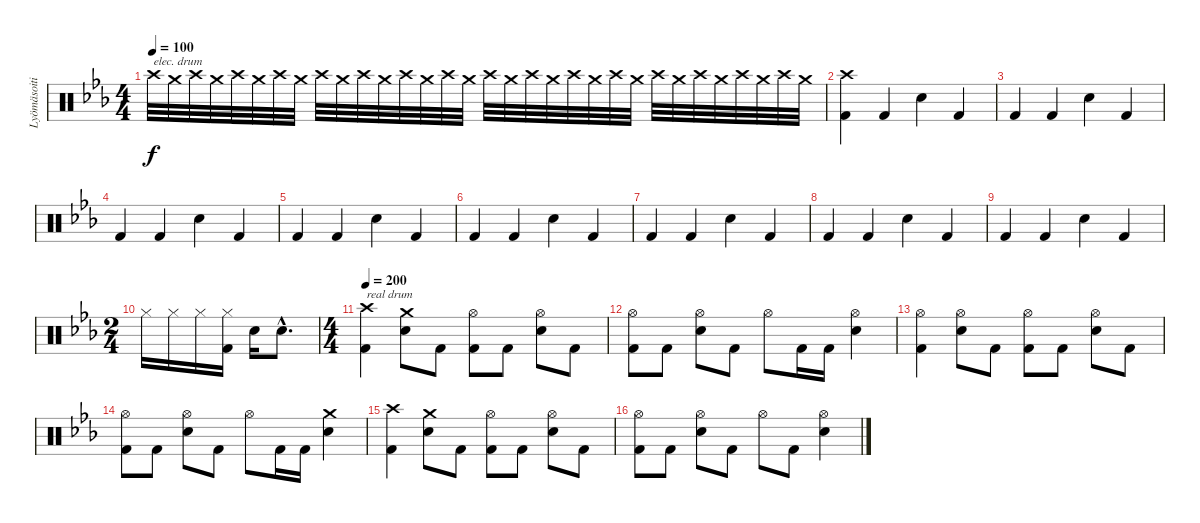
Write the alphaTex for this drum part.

\track ("Lyömäsoitin" "Lyömäsoiti") {instrument percussion}
\staff {score}
\articulation defaults
\ts (4 4)
\tempo 100
\clef neutral
\ks eb "Crash high (hit)".32{txt "elec. drum" dy f volume 0} "Crash medium (hit)".32{volume 11} "Crash high (hit)".32 "Crash medium (hit)".32 "Crash high (hit)".32 "Crash medium (hit)".32 "Crash high (hit)".32 "Crash medium (hit)".32 "Crash high (hit)".32 "Crash medium (hit)".32 "Crash high (hit)".32 "Crash medium (hit)".32 "Crash high (hit)".32 "Crash medium (hit)".32 "Crash high (hit)".32 "Crash medium (hit)".32 "Crash high (hit)".32 "Crash medium (hit)".32 "Crash high (hit)".32 "Crash medium (hit)".32 "Crash high (hit)".32 "Crash medium (hit)".32 "Crash high (hit)".32 "Crash medium (hit)".32 "Crash high (hit)".32 "Crash medium (hit)".32 "Crash high (hit)".32 "Crash medium (hit)".32 "Crash high (hit)".32 "Crash medium (hit)".32 "Crash high (hit)".32 "Crash medium (hit)".32
|
("Crash high (hit)" "Kick (hit) 2").4{volume 8} "Kick (hit) 2".4 "Snare (hit) 2".4 "Kick (hit) 2".4 |
"Kick (hit) 2".4 "Kick (hit) 2".4 "Snare (hit) 2".4 "Kick (hit) 2".4 |
"Kick (hit) 2".4 "Kick (hit) 2".4 "Snare (hit) 2".4 "Kick (hit) 2".4 |
"Kick (hit) 2".4 "Kick (hit) 2".4 "Snare (hit) 2".4 "Kick (hit) 2".4 |
"Kick (hit) 2".4 "Kick (hit) 2".4 "Snare (hit) 2".4 "Kick (hit) 2".4 |
"Kick (hit) 2".4 "Kick (hit) 2".4 "Snare (hit) 2".4 "Kick (hit) 2".4 |
"Kick (hit) 2".4 "Kick (hit) 2".4 "Snare (hit) 2".4 "Kick (hit) 2".4 |
"Kick (hit) 2".4 "Kick (hit) 2".4 "Snare (hit) 2".4 "Kick (hit) 2".4 |
\ts (2 4)
"Hi-Hat (closed)".16 "Hi-Hat (closed)".16 "Hi-Hat (closed)".16 ("Hi-Hat (closed)" "Kick (hit) 2").16 "Snare (hit) 2".16 "Snare (hit) 2"{hac}.8{d} |
\ts (4 4)
\tempo 200
("Crash high (hit)" "Kick (hit) 2").4{txt "real drum" volume 14} ("Crash medium (hit)" "Snare (hit) 2").8 "Kick (hit) 2".8 ("Hi-Hat (open)" "Kick (hit) 2").8 "Kick (hit) 2".8 ("Hi-Hat (open)" "Snare (hit) 2").8 "Kick (hit) 2".8 |
("Hi-Hat (open)" "Kick (hit) 2").8 "Kick (hit) 2".8 ("Hi-Hat (open)" "Snare (hit) 2").8 "Kick (hit) 2".8 "Hi-Hat (open)".8 "Kick (hit) 2".16 "Kick (hit) 2".16 ("Hi-Hat (open)" "Snare (hit) 2").4 |
("Hi-Hat (open)" "Kick (hit) 2").4 ("Hi-Hat (open)" "Snare (hit) 2").8 "Kick (hit) 2".8 ("Hi-Hat (open)" "Kick (hit) 2").8 "Kick (hit) 2".8 ("Hi-Hat (open)" "Snare (hit) 2").8 "Kick (hit) 2".8 |
("Hi-Hat (open)" "Kick (hit) 2").8 "Kick (hit) 2".8 ("Hi-Hat (open)" "Snare (hit) 2").8 "Kick (hit) 2".8 "Hi-Hat (open)".8 "Kick (hit) 2".16 "Kick (hit) 2".16 ("Crash medium (hit)" "Snare (hit) 2").4 |
("Crash high (hit)" "Kick (hit) 2").4 ("Crash medium (hit)" "Snare (hit) 2").8 "Kick (hit) 2".8 ("Hi-Hat (open)" "Kick (hit) 2").8 "Kick (hit) 2".8 ("Hi-Hat (open)" "Snare (hit) 2").8 "Kick (hit) 2".8 |
("Hi-Hat (open)" "Kick (hit) 2").8 "Kick (hit) 2".8 ("Hi-Hat (open)" "Snare (hit) 2").8 "Kick (hit) 2".8 "Hi-Hat (open)".8 "Kick (hit) 2".8 ("Hi-Hat (open)" "Snare (hit) 2").4
